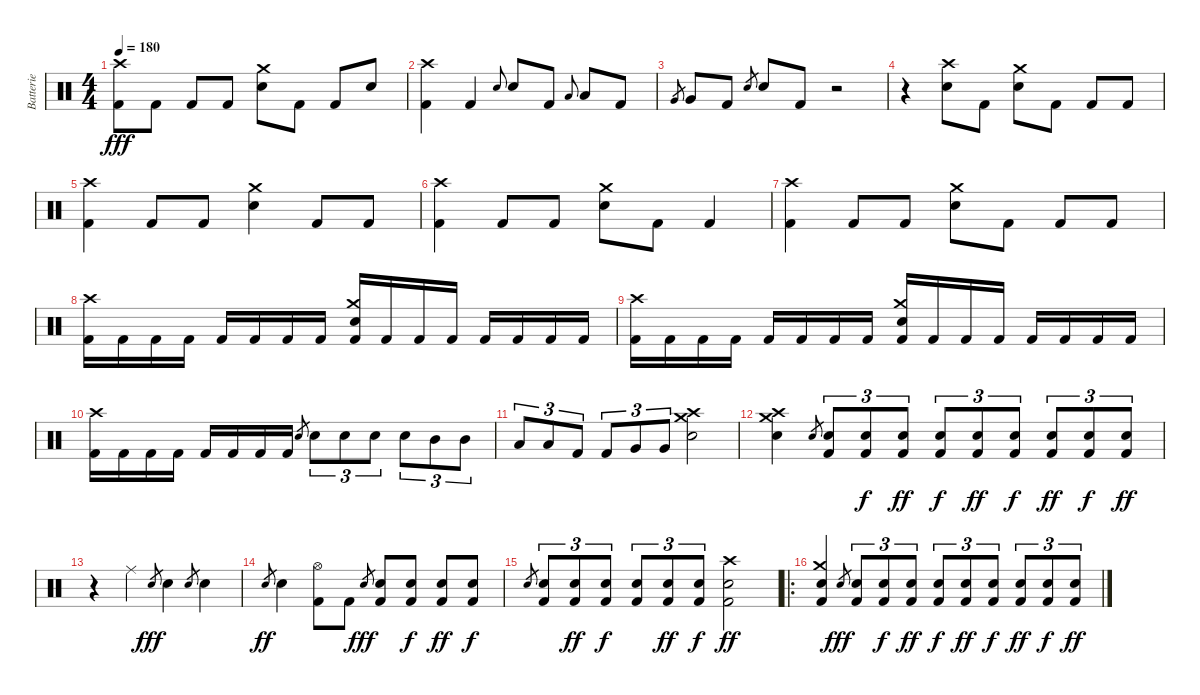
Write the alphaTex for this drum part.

\track ("Batterie" "Batterie") {instrument percussion}
\staff {score}
\articulation defaults
\ts (4 4)
\tempo 180
\clef neutral
\ks c
("Crash high (hit)" "Kick (hit) 2").8{dy fff} "Kick (hit) 2".8 "Kick (hit) 2".8 "Kick (hit) 2".8 ("Crash medium (hit)" "Electric Snare (hit)").8 "Kick (hit) 2".8 "Kick (hit) 2".8 "Electric Snare (hit)".8 |
("Crash high (hit)" "Kick (hit) 2").4 "Kick (hit) 2".4 "Electric Snare (hit)".8{gr onbeat} "Electric Snare (hit)".8 "Kick (hit) 2".8 "Low Tom (hit)".8{gr onbeat} "Low Tom (hit)".8 "Kick (hit) 2".8 |
"Very Low Tom (hit)".8{gr} "Very Low Tom (hit)".8 "Kick (hit) 2".8 "Electric Snare (hit)".8{gr} "Electric Snare (hit)".8 "Kick (hit) 2".8 r.2 |
r.4 ("Crash high (hit)" "Electric Snare (hit)").8 "Kick (hit) 2".8 ("Crash medium (hit)" "Electric Snare (hit)").8 "Kick (hit) 2".8 "Kick (hit) 2".8 "Kick (hit) 2".8 |
("Crash high (hit)" "Kick (hit) 2").4 "Kick (hit) 2".8 "Kick (hit) 2".8 ("Crash medium (hit)" "Electric Snare (hit)").4 "Kick (hit) 2".8 "Kick (hit) 2".8 |
("Crash high (hit)" "Kick (hit) 2").4 "Kick (hit) 2".8 "Kick (hit) 2".8 ("Crash medium (hit)" "Electric Snare (hit)").8 "Kick (hit) 2".8 "Kick (hit) 2".4 |
("Crash high (hit)" "Kick (hit) 2").4 "Kick (hit) 2".8 "Kick (hit) 2".8 ("Crash medium (hit)" "Electric Snare (hit)").8 "Kick (hit) 2".8 "Kick (hit) 2".8 "Kick (hit) 2".8 |
("Crash high (hit)" "Kick (hit) 2").16 "Kick (hit) 2".16 "Kick (hit) 2".16 "Kick (hit) 2".16 "Kick (hit) 2".16 "Kick (hit) 2".16 "Kick (hit) 2".16 "Kick (hit) 2".16 ("Crash medium (hit)" "Electric Snare (hit)" "Kick (hit) 2").16 "Kick (hit) 2".16 "Kick (hit) 2".16 "Kick (hit) 2".16 "Kick (hit) 2".16 "Kick (hit) 2".16 "Kick (hit) 2".16 "Kick (hit) 2".16 |
("Crash high (hit)" "Kick (hit) 2").16 "Kick (hit) 2".16 "Kick (hit) 2".16 "Kick (hit) 2".16 "Kick (hit) 2".16 "Kick (hit) 2".16 "Kick (hit) 2".16 "Kick (hit) 2".16 ("Crash medium (hit)" "Electric Snare (hit)" "Kick (hit) 2").16 "Kick (hit) 2".16 "Kick (hit) 2".16 "Kick (hit) 2".16 "Kick (hit) 2".16 "Kick (hit) 2".16 "Kick (hit) 2".16 "Kick (hit) 2".16 |
("Crash high (hit)" "Kick (hit) 2").16 "Kick (hit) 2".16 "Kick (hit) 2".16 "Kick (hit) 2".16 "Kick (hit) 2".16 "Kick (hit) 2".16 "Kick (hit) 2".16 "Kick (hit) 2".16 "Electric Snare (hit)".8{gr} "Electric Snare (hit)".8{tu (3 2)} "Electric Snare (hit)".8{tu (3 2)} "Electric Snare (hit)".8{tu (3 2)} "Electric Snare (hit)".8{tu (3 2)} "Mid Tom (hit)".8{tu (3 2)} "Mid Tom (hit)".8{tu (3 2)} |
"Low Tom (hit)".8{tu (3 2)} "Low Tom (hit)".8{tu (3 2)} "Kick (hit) 2".8{tu (3 2)} "Kick (hit) 2".8{tu (3 2)} "Very Low Tom (hit)".8{tu (3 2)} "Very Low Tom (hit)".8{tu (3 2)} ("Crash high (hit)" "Crash medium (hit)" "Electric Snare (hit)").2 |
("Crash high (hit)" "Crash medium (hit)" "Electric Snare (hit)").4 "Electric Snare (hit)".8{gr} ("Electric Snare (hit)" "Kick (hit) 2").8{tu (3 2)} ("Electric Snare (hit)" "Kick (hit) 2").8{tu (3 2) dy f} ("Electric Snare (hit)" "Kick (hit) 2").8{tu (3 2) dy ff} ("Electric Snare (hit)" "Kick (hit) 2").8{tu (3 2) dy f} ("Electric Snare (hit)" "Kick (hit) 2").8{tu (3 2) dy ff} ("Electric Snare (hit)" "Kick (hit) 2").8{tu (3 2) dy f} ("Electric Snare (hit)" "Kick (hit) 2").8{tu (3 2) dy ff} ("Electric Snare (hit)" "Kick (hit) 2").8{tu (3 2) dy f} ("Electric Snare (hit)" "Kick (hit) 2").8{tu (3 2) dy ff} |
r.4 "Ride (middle)".4 "Electric Snare (hit)".8{gr dy fff} "Electric Snare (hit)".4 "Electric Snare (hit)".8{gr} "Electric Snare (hit)".4 |
"Electric Snare (hit)".8{gr dy ff} "Electric Snare (hit)".4 ("Hi-Hat (open)" "Kick (hit) 2").8 "Kick (hit) 2".8 "Electric Snare (hit)".8{gr dy fff} ("Electric Snare (hit)" "Kick (hit) 2").8 ("Electric Snare (hit)" "Kick (hit) 2").8{dy f} ("Electric Snare (hit)" "Kick (hit) 2").8{dy ff} ("Electric Snare (hit)" "Kick (hit) 2").8{dy f} |
"Electric Snare (hit)".8{gr} ("Electric Snare (hit)" "Kick (hit) 2").8{tu (3 2)} ("Electric Snare (hit)" "Kick (hit) 2").8{tu (3 2) dy ff} ("Electric Snare (hit)" "Kick (hit) 2").8{tu (3 2) dy f} ("Electric Snare (hit)" "Kick (hit) 2").8{tu (3 2)} ("Electric Snare (hit)" "Kick (hit) 2").8{tu (3 2) dy ff} ("Electric Snare (hit)" "Kick (hit) 2").8{tu (3 2) dy f} ("Crash high (hit)" "Electric Snare (hit)" "Kick (hit) 2").2{dy ff} |
\ro
("Crash medium (hit)" "Electric Snare (hit)" "Kick (hit) 2").4 "Electric Snare (hit)".8{gr dy fff} ("Electric Snare (hit)" "Kick (hit) 2").8{tu (3 2)} ("Electric Snare (hit)" "Kick (hit) 2").8{tu (3 2) dy f} ("Electric Snare (hit)" "Kick (hit) 2").8{tu (3 2) dy ff} ("Electric Snare (hit)" "Kick (hit) 2").8{tu (3 2) dy f} ("Electric Snare (hit)" "Kick (hit) 2").8{tu (3 2) dy ff} ("Electric Snare (hit)" "Kick (hit) 2").8{tu (3 2) dy f} ("Electric Snare (hit)" "Kick (hit) 2").8{tu (3 2) dy ff} ("Electric Snare (hit)" "Kick (hit) 2").8{tu (3 2) dy f} ("Electric Snare (hit)" "Kick (hit) 2").8{tu (3 2) dy ff}
